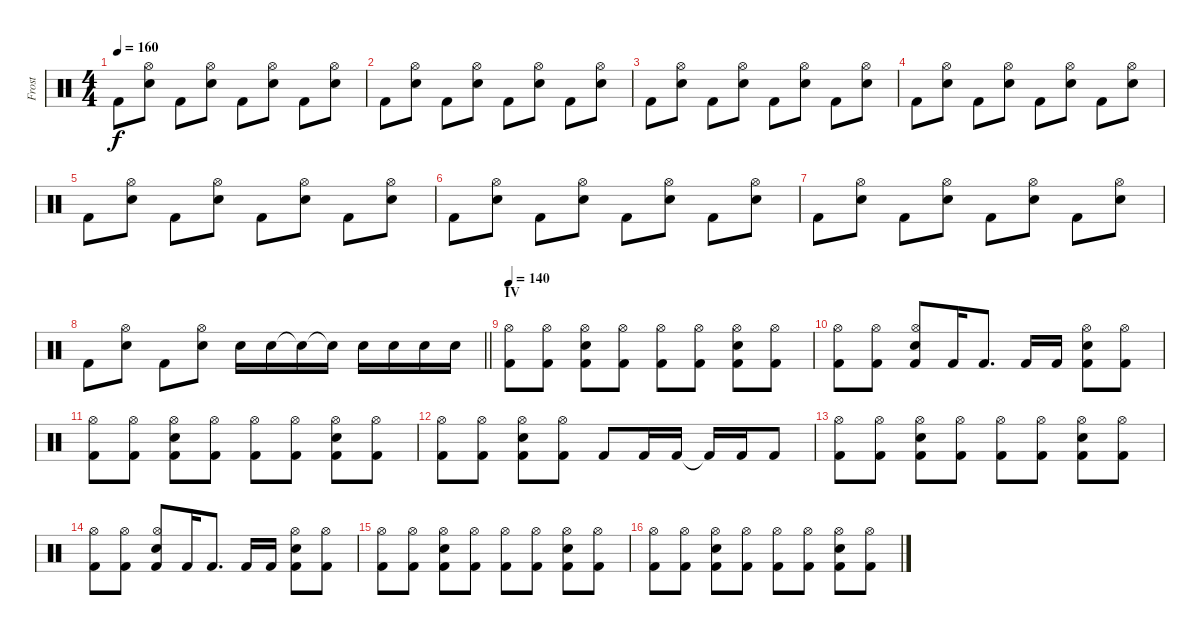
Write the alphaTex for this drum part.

\track ("Frost" "Frost") {instrument percussion}
\staff {score}
\articulation defaults
\ts (4 4)
\tempo 160
\clef neutral
\ks c "Kick (hit) 2".8{dy f}
("Hi-Hat (open)" "Snare (hit) 2").8 "Kick (hit) 2".8 ("Hi-Hat (open)" "Snare (hit) 2").8 "Kick (hit) 2".8 ("Hi-Hat (open)" "Snare (hit) 2").8 "Kick (hit) 2".8 ("Hi-Hat (open)" "Snare (hit) 2").8 |
"Kick (hit) 2".8 ("Hi-Hat (open)" "Snare (hit) 2").8 "Kick (hit) 2".8 ("Hi-Hat (open)" "Snare (hit) 2").8 "Kick (hit) 2".8 ("Hi-Hat (open)" "Snare (hit) 2").8 "Kick (hit) 2".8 ("Hi-Hat (open)" "Snare (hit) 2").8 |
"Kick (hit) 2".8 ("Hi-Hat (open)" "Snare (hit) 2").8 "Kick (hit) 2".8 ("Hi-Hat (open)" "Snare (hit) 2").8 "Kick (hit) 2".8 ("Hi-Hat (open)" "Snare (hit) 2").8 "Kick (hit) 2".8 ("Hi-Hat (open)" "Snare (hit) 2").8 |
"Kick (hit) 2".8 ("Hi-Hat (open)" "Snare (hit) 2").8 "Kick (hit) 2".8 ("Hi-Hat (open)" "Snare (hit) 2").8 "Kick (hit) 2".8 ("Hi-Hat (open)" "Snare (hit) 2").8 "Kick (hit) 2".8 ("Hi-Hat (open)" "Snare (hit) 2").8 |
"Kick (hit) 2".8 ("Hi-Hat (open)" "Snare (hit) 2").8 "Kick (hit) 2".8 ("Hi-Hat (open)" "Snare (hit) 2").8 "Kick (hit) 2".8 ("Hi-Hat (open)" "Snare (hit) 2").8 "Kick (hit) 2".8 ("Hi-Hat (open)" "Snare (hit) 2").8 |
"Kick (hit) 2".8 ("Hi-Hat (open)" "Snare (hit) 2").8 "Kick (hit) 2".8 ("Hi-Hat (open)" "Snare (hit) 2").8 "Kick (hit) 2".8 ("Hi-Hat (open)" "Snare (hit) 2").8 "Kick (hit) 2".8 ("Hi-Hat (open)" "Snare (hit) 2").8 |
"Kick (hit) 2".8 ("Hi-Hat (open)" "Snare (hit) 2").8 "Kick (hit) 2".8 ("Hi-Hat (open)" "Snare (hit) 2").8 "Kick (hit) 2".8 ("Hi-Hat (open)" "Snare (hit) 2").8 "Kick (hit) 2".8 ("Hi-Hat (open)" "Snare (hit) 2").8 |
\barLineRight lightlight "Kick (hit) 2".8
("Hi-Hat (open)" "Snare (hit) 2").8 "Kick (hit) 2".8 ("Hi-Hat (open)" "Snare (hit) 2").8 "Snare (hit) 2".16 "Snare (hit) 2".16 "Snare (hit) 2"{t}.16 "Snare (hit) 2"{t}.16 "Snare (hit) 2".16 "Snare (hit) 2".16 "Snare (hit) 2".16 "Snare (hit) 2".16 |
\section ("" "IV")
\tempo 140
("Hi-Hat (open)" "Kick (hit) 2").8 ("Hi-Hat (open)" "Kick (hit) 2").8 ("Hi-Hat (open)" "Snare (hit) 2" "Kick (hit) 2").8 ("Hi-Hat (open)" "Kick (hit) 2").8 ("Hi-Hat (open)" "Kick (hit) 2").8 ("Hi-Hat (open)" "Kick (hit) 2").8 ("Hi-Hat (open)" "Snare (hit) 2" "Kick (hit) 2").8 ("Hi-Hat (open)" "Kick (hit) 2").8 |
("Hi-Hat (open)" "Kick (hit) 2").8 ("Hi-Hat (open)" "Kick (hit) 2").8 ("Hi-Hat (open)" "Snare (hit) 2" "Kick (hit) 2").8 "Kick (hit) 2".16 "Kick (hit) 2".8{d} "Kick (hit) 2".16 "Kick (hit) 2".16 ("Hi-Hat (open)" "Snare (hit) 2" "Kick (hit) 2").8 ("Hi-Hat (open)" "Kick (hit) 2").8 |
("Hi-Hat (open)" "Kick (hit) 2").8 ("Hi-Hat (open)" "Kick (hit) 2").8 ("Hi-Hat (open)" "Snare (hit) 2" "Kick (hit) 2").8 ("Hi-Hat (open)" "Kick (hit) 2").8 ("Hi-Hat (open)" "Kick (hit) 2").8 ("Hi-Hat (open)" "Kick (hit) 2").8 ("Hi-Hat (open)" "Snare (hit) 2" "Kick (hit) 2").8 ("Hi-Hat (open)" "Kick (hit) 2").8 |
("Hi-Hat (open)" "Kick (hit) 2").8 ("Hi-Hat (open)" "Kick (hit) 2").8 ("Hi-Hat (open)" "Snare (hit) 2" "Kick (hit) 2").8 ("Hi-Hat (open)" "Kick (hit) 2").8 "Kick (hit) 2".8 "Kick (hit) 2".16 "Kick (hit) 2".16 "Kick (hit) 2"{t}.16 "Kick (hit) 2".16 "Kick (hit) 2".8 |
("Hi-Hat (open)" "Kick (hit) 2").8 ("Hi-Hat (open)" "Kick (hit) 2").8 ("Hi-Hat (open)" "Snare (hit) 2" "Kick (hit) 2").8 ("Hi-Hat (open)" "Kick (hit) 2").8 ("Hi-Hat (open)" "Kick (hit) 2").8 ("Hi-Hat (open)" "Kick (hit) 2").8 ("Hi-Hat (open)" "Snare (hit) 2" "Kick (hit) 2").8 ("Hi-Hat (open)" "Kick (hit) 2").8 |
("Hi-Hat (open)" "Kick (hit) 2").8 ("Hi-Hat (open)" "Kick (hit) 2").8 ("Hi-Hat (open)" "Snare (hit) 2" "Kick (hit) 2").8 "Kick (hit) 2".16 "Kick (hit) 2".8{d} "Kick (hit) 2".16 "Kick (hit) 2".16 ("Hi-Hat (open)" "Snare (hit) 2" "Kick (hit) 2").8 ("Hi-Hat (open)" "Kick (hit) 2").8 |
("Hi-Hat (open)" "Kick (hit) 2").8 ("Hi-Hat (open)" "Kick (hit) 2").8 ("Hi-Hat (open)" "Snare (hit) 2" "Kick (hit) 2").8 ("Hi-Hat (open)" "Kick (hit) 2").8 ("Hi-Hat (open)" "Kick (hit) 2").8 ("Hi-Hat (open)" "Kick (hit) 2").8 ("Hi-Hat (open)" "Snare (hit) 2" "Kick (hit) 2").8 ("Hi-Hat (open)" "Kick (hit) 2").8 |
("Hi-Hat (open)" "Kick (hit) 2").8 ("Hi-Hat (open)" "Kick (hit) 2").8 ("Hi-Hat (open)" "Snare (hit) 2" "Kick (hit) 2").8 ("Hi-Hat (open)" "Kick (hit) 2").8 ("Hi-Hat (open)" "Kick (hit) 2").8 ("Hi-Hat (open)" "Kick (hit) 2").8 ("Hi-Hat (open)" "Snare (hit) 2" "Kick (hit) 2").8 ("Hi-Hat (open)" "Kick (hit) 2").8
